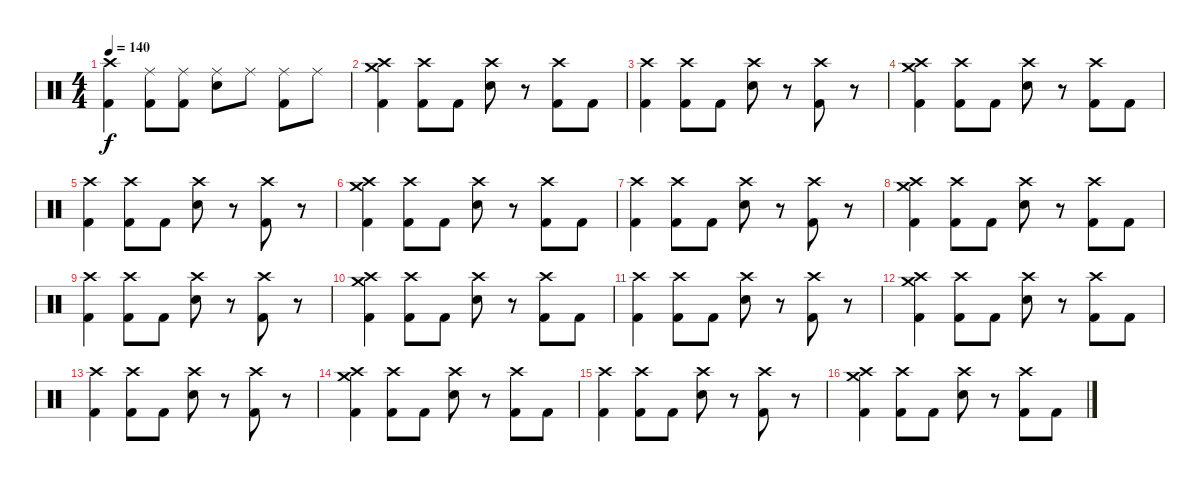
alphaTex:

\track "" {instrument percussion}
\staff {score}
\articulation defaults
\ts (4 4)
\tempo 140
\clef neutral
\ks c
("Kick (hit) 2" "Crash high (hit)").4{dy f} ("Kick (hit) 2" "Ride (middle)").8 ("Kick (hit) 2" "Ride (middle)").8 ("Snare (hit) 2" "Ride (middle)").8 "Ride (middle)".8 ("Kick (hit) 2" "Ride (middle)").8 "Ride (middle)".8 |
("Kick (hit) 2" "Crash medium (hit)" "Crash high (hit)").4 ("Kick (hit) 2" "Crash high (hit)").8 "Kick (hit) 2".8 ("Snare (hit) 2" "Crash high (hit)").8 r.8 ("Kick (hit) 2" "Crash high (hit)").8 "Kick (hit) 2".8 |
("Kick (hit) 2" "Crash high (hit)").4 ("Kick (hit) 2" "Crash high (hit)").8 "Kick (hit) 2".8 ("Snare (hit) 2" "Crash high (hit)").8 r.8 ("Kick (hit) 2" "Crash high (hit)").8 r.8 |
("Kick (hit) 2" "Crash high (hit)" "Crash medium (hit)").4 ("Kick (hit) 2" "Crash high (hit)").8 "Kick (hit) 2".8 ("Snare (hit) 2" "Crash high (hit)").8 r.8 ("Kick (hit) 2" "Crash high (hit)").8 "Kick (hit) 2".8 |
("Kick (hit) 2" "Crash high (hit)").4 ("Kick (hit) 2" "Crash high (hit)").8 "Kick (hit) 2".8 ("Snare (hit) 2" "Crash high (hit)").8 r.8 ("Kick (hit) 2" "Crash high (hit)").8 r.8 |
("Kick (hit) 2" "Crash medium (hit)" "Crash high (hit)").4 ("Kick (hit) 2" "Crash high (hit)").8 "Kick (hit) 2".8 ("Snare (hit) 2" "Crash high (hit)").8 r.8 ("Kick (hit) 2" "Crash high (hit)").8 "Kick (hit) 2".8 |
("Kick (hit) 2" "Crash high (hit)").4 ("Kick (hit) 2" "Crash high (hit)").8 "Kick (hit) 2".8 ("Snare (hit) 2" "Crash high (hit)").8 r.8 ("Kick (hit) 2" "Crash high (hit)").8 r.8 |
("Kick (hit) 2" "Crash high (hit)" "Crash medium (hit)").4 ("Kick (hit) 2" "Crash high (hit)").8 "Kick (hit) 2".8 ("Snare (hit) 2" "Crash high (hit)").8 r.8 ("Kick (hit) 2" "Crash high (hit)").8 "Kick (hit) 2".8 |
("Kick (hit) 2" "Crash high (hit)").4 ("Kick (hit) 2" "Crash high (hit)").8 "Kick (hit) 2".8 ("Snare (hit) 2" "Crash high (hit)").8 r.8 ("Kick (hit) 2" "Crash high (hit)").8 r.8 |
("Kick (hit) 2" "Crash medium (hit)" "Crash high (hit)").4 ("Kick (hit) 2" "Crash high (hit)").8 "Kick (hit) 2".8 ("Snare (hit) 2" "Crash high (hit)").8 r.8 ("Kick (hit) 2" "Crash high (hit)").8 "Kick (hit) 2".8 |
("Kick (hit) 2" "Crash high (hit)").4 ("Kick (hit) 2" "Crash high (hit)").8 "Kick (hit) 2".8 ("Snare (hit) 2" "Crash high (hit)").8 r.8 ("Kick (hit) 2" "Crash high (hit)").8 r.8 |
("Kick (hit) 2" "Crash high (hit)" "Crash medium (hit)").4 ("Kick (hit) 2" "Crash high (hit)").8 "Kick (hit) 2".8 ("Snare (hit) 2" "Crash high (hit)").8 r.8 ("Kick (hit) 2" "Crash high (hit)").8 "Kick (hit) 2".8 |
("Kick (hit) 2" "Crash high (hit)").4 ("Kick (hit) 2" "Crash high (hit)").8 "Kick (hit) 2".8 ("Snare (hit) 2" "Crash high (hit)").8 r.8 ("Kick (hit) 2" "Crash high (hit)").8 r.8 |
("Kick (hit) 2" "Crash medium (hit)" "Crash high (hit)").4 ("Kick (hit) 2" "Crash high (hit)").8 "Kick (hit) 2".8 ("Snare (hit) 2" "Crash high (hit)").8 r.8 ("Kick (hit) 2" "Crash high (hit)").8 "Kick (hit) 2".8 |
("Kick (hit) 2" "Crash high (hit)").4 ("Kick (hit) 2" "Crash high (hit)").8 "Kick (hit) 2".8 ("Snare (hit) 2" "Crash high (hit)").8 r.8 ("Kick (hit) 2" "Crash high (hit)").8 r.8 |
("Kick (hit) 2" "Crash high (hit)" "Crash medium (hit)").4 ("Kick (hit) 2" "Crash high (hit)").8 "Kick (hit) 2".8 ("Snare (hit) 2" "Crash high (hit)").8 r.8 ("Kick (hit) 2" "Crash high (hit)").8 "Kick (hit) 2".8
